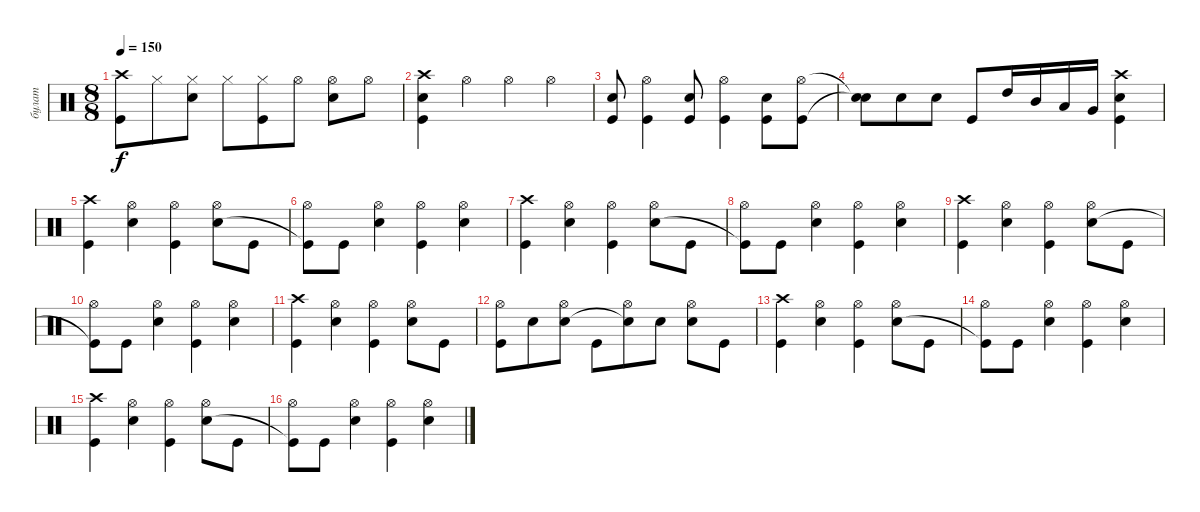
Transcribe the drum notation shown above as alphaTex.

\track ("булат" "булат") {instrument percussion}
\staff {score}
\articulation defaults
\ts (8 8)
\tempo 150
\clef neutral
\ks c
("Crash high (hit)" "Kick (hit)").8{dy f} "Hi-Hat (closed)".8 ("Hi-Hat (closed)" "Snare (hit) 2").8 "Hi-Hat (closed)".8 ("Hi-Hat (closed)" "Kick (hit)").8 "Hi-Hat (open)".8 ("Hi-Hat (open)" "Snare (hit) 2").8 "Hi-Hat (open)".8 |
("Crash high (hit)" "Kick (hit)" "Snare (hit) 2").4 "Hi-Hat (open)".4 "Hi-Hat (open)".4 "Hi-Hat (open)".4 |
("Kick (hit)" "Snare (hit) 2").8 ("Hi-Hat (open)" "Kick (hit)").4 ("Kick (hit)" "Snare (hit) 2").8 ("Hi-Hat (open)" "Kick (hit)").4 ("Kick (hit)" "Snare (hit) 2").8 ("Hi-Hat (open)" "Kick (hit)").8 |
("Snare (hit)"{t} "Snare (hit)"{t}).8 "Snare (hit) 2".8 "Snare (hit) 2".8 "Kick (hit)".8 "High Tom (hit)".16 "Mid Tom (hit)".16 "Low Tom (hit)".16 "Very Low Tom (hit)".16 ("Crash high (hit)" "Kick (hit)" "Snare (hit) 2").4 |
("Crash high (hit)" "Kick (hit)").4 ("Hi-Hat (open)" "Snare (hit) 2").4 ("Hi-Hat (open)" "Kick (hit)").4 ("Hi-Hat (open)" "Snare (hit) 2").8 "Kick (hit)".8 |
("Hi-Hat (open)" "Kick (hit)"{t}).8 "Kick (hit)".8 ("Hi-Hat (open)" "Snare (hit) 2").4 ("Hi-Hat (open)" "Kick (hit)").4 ("Hi-Hat (open)" "Snare (hit) 2").4 |
("Crash high (hit)" "Kick (hit)").4 ("Hi-Hat (open)" "Snare (hit) 2").4 ("Hi-Hat (open)" "Kick (hit)").4 ("Hi-Hat (open)" "Snare (hit) 2").8 "Kick (hit)".8 |
("Hi-Hat (open)" "Kick (hit)"{t}).8 "Kick (hit)".8 ("Hi-Hat (open)" "Snare (hit) 2").4 ("Hi-Hat (open)" "Kick (hit)").4 ("Hi-Hat (open)" "Snare (hit) 2").4 |
("Crash high (hit)" "Kick (hit)").4 ("Hi-Hat (open)" "Snare (hit) 2").4 ("Hi-Hat (open)" "Kick (hit)").4 ("Hi-Hat (open)" "Snare (hit) 2").8 "Kick (hit)".8 |
("Hi-Hat (open)" "Kick (hit)"{t}).8 "Kick (hit)".8 ("Hi-Hat (open)" "Snare (hit) 2").4 ("Hi-Hat (open)" "Kick (hit)").4 ("Hi-Hat (open)" "Snare (hit) 2").4 |
("Crash high (hit)" "Kick (hit)").4 ("Hi-Hat (open)" "Snare (hit) 2").4 ("Hi-Hat (open)" "Kick (hit)").4 ("Hi-Hat (open)" "Snare (hit) 2").8 "Kick (hit)".8 |
("Hi-Hat (open)" "Kick (hit)").8 "Snare (hit) 2".8 ("Hi-Hat (open)" "Snare (hit) 2").8 "Kick (hit)".8 ("Hi-Hat (open)" "Snare (hit)"{t}).8 "Snare (hit) 2".8 ("Hi-Hat (open)" "Snare (hit) 2").8 "Kick (hit)".8 |
("Crash high (hit)" "Kick (hit)").4 ("Hi-Hat (open)" "Snare (hit) 2").4 ("Hi-Hat (open)" "Kick (hit)").4 ("Hi-Hat (open)" "Snare (hit) 2").8 "Kick (hit)".8 |
("Hi-Hat (open)" "Kick (hit)"{t}).8 "Kick (hit)".8 ("Hi-Hat (open)" "Snare (hit) 2").4 ("Hi-Hat (open)" "Kick (hit)").4 ("Hi-Hat (open)" "Snare (hit) 2").4 |
("Crash high (hit)" "Kick (hit)").4 ("Hi-Hat (open)" "Snare (hit) 2").4 ("Hi-Hat (open)" "Kick (hit)").4 ("Hi-Hat (open)" "Snare (hit) 2").8 "Kick (hit)".8 |
("Hi-Hat (open)" "Kick (hit)"{t}).8 "Kick (hit)".8 ("Hi-Hat (open)" "Snare (hit) 2").4 ("Hi-Hat (open)" "Kick (hit)").4 ("Hi-Hat (open)" "Snare (hit) 2").4
